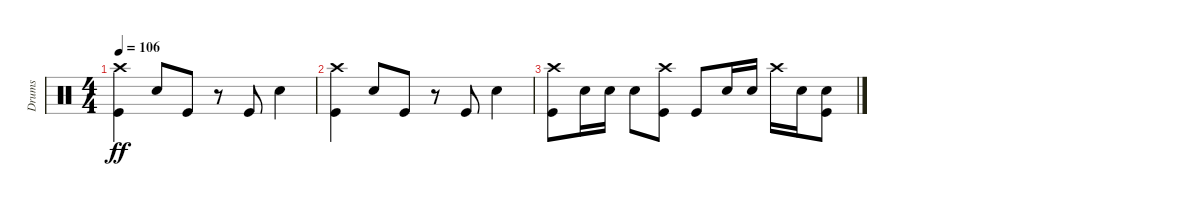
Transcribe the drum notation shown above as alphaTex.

\track ("Drums" "Drums") {instrument percussion}
\staff {score}
\articulation defaults
\ts (4 4)
\tempo 106
\clef neutral
\ks c
("Crash high (hit)" "Kick (hit)").4{dy ff} "Snare (hit) 2".8 "Kick (hit)".8 r.8 "Kick (hit)".8 "Snare (hit) 2".4 |
("Crash high (hit)" "Kick (hit)").4{volume 0} "Snare (hit) 2".8 "Kick (hit)".8 r.8 "Kick (hit)".8 "Snare (hit) 2".4 |
("Crash high (hit)" "Kick (hit)").8 "Snare (hit) 2".16 "Snare (hit) 2".16 "Snare (hit) 2".8 ("Crash high (hit)" "Kick (hit)").8 "Kick (hit)".8 "Snare (hit) 2".16 "Snare (hit) 2".16 "Crash high (hit)".16 "Snare (hit) 2".16 ("Snare (hit) 2" "Kick (hit)").8
